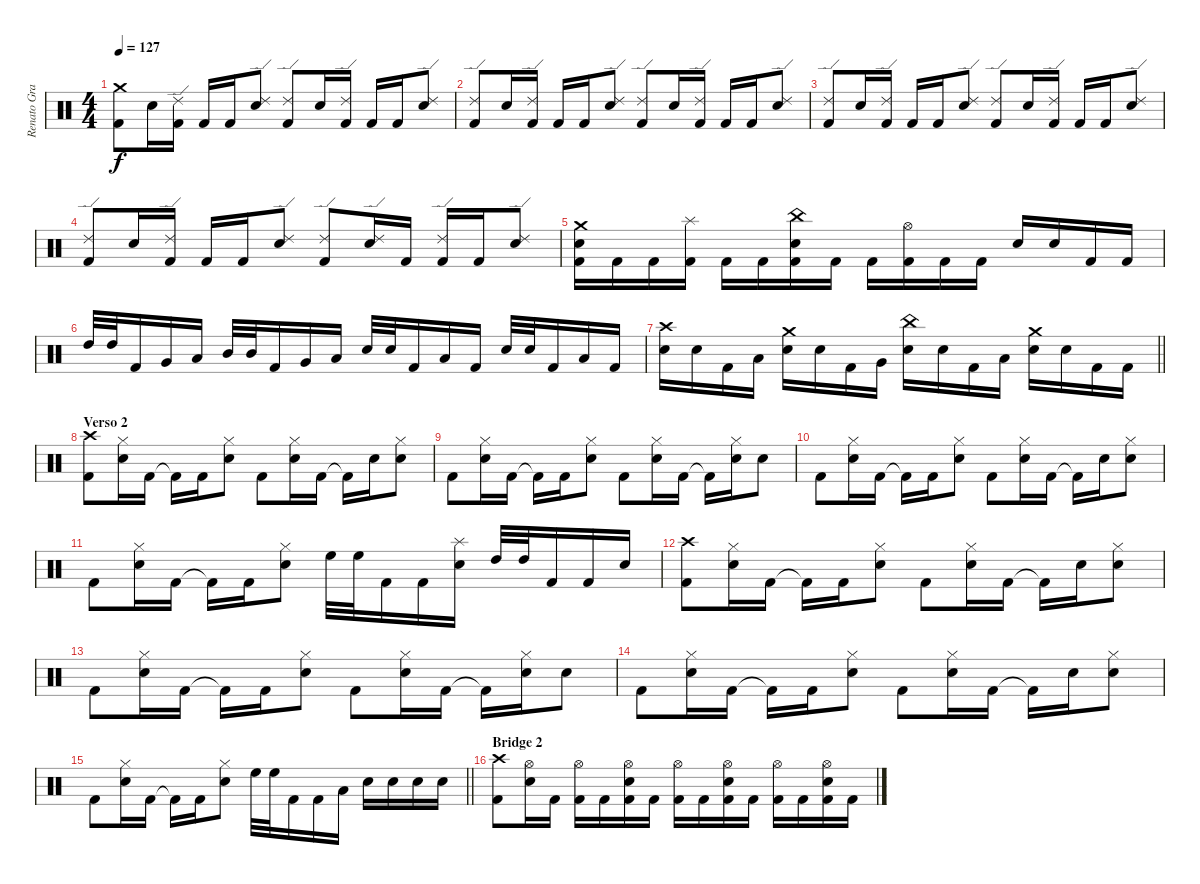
\track ("Renato Graccia (drums)" "Renato Gra") {instrument percussion}
\staff {score}
\articulation defaults
\ts (4 4)
\tempo 127
\clef neutral
\ks c
("Crash medium (hit)" "Kick (hit) 2").8{dy f} "Snare (hit) 2".16 ("Ride (edge) 2" "Kick (hit) 2").16 "Kick (hit) 2".16 "Kick (hit) 2".16 ("Ride (edge) 2" "Snare (hit) 2").8 ("Ride (edge) 2" "Kick (hit) 2").8 "Snare (hit) 2".16 ("Ride (edge) 2" "Kick (hit) 2").16 "Kick (hit) 2".16 "Kick (hit) 2".16 ("Ride (edge) 2" "Snare (hit) 2").8 |
("Ride (edge) 2" "Kick (hit) 2").8 "Snare (hit) 2".16 ("Ride (edge) 2" "Kick (hit) 2").16 "Kick (hit) 2".16 "Kick (hit) 2".16 ("Ride (edge) 2" "Snare (hit) 2").8 ("Ride (edge) 2" "Kick (hit) 2").8 "Snare (hit) 2".16 ("Ride (edge) 2" "Kick (hit) 2").16 "Kick (hit) 2".16 "Kick (hit) 2".16 ("Ride (edge) 2" "Snare (hit) 2").8 |
("Ride (edge) 2" "Kick (hit) 2").8 "Snare (hit) 2".16 ("Ride (edge) 2" "Kick (hit) 2").16 "Kick (hit) 2".16 "Kick (hit) 2".16 ("Ride (edge) 2" "Snare (hit) 2").8 ("Ride (edge) 2" "Kick (hit) 2").8 "Snare (hit) 2".16 ("Ride (edge) 2" "Kick (hit) 2").16 "Kick (hit) 2".16 "Kick (hit) 2".16 ("Ride (edge) 2" "Snare (hit) 2").8 |
("Ride (edge) 2" "Kick (hit) 2").8 "Snare (hit) 2".16 ("Ride (edge) 2" "Kick (hit) 2").16 "Kick (hit) 2".16 "Kick (hit) 2".16 ("Ride (edge) 2" "Snare (hit) 2").8 ("Ride (edge) 2" "Kick (hit) 2").8 ("Ride (edge) 2" "Snare (hit) 2").16 "Kick (hit) 2".16 ("Ride (edge) 2" "Kick (hit) 2").16 "Kick (hit) 2".16 ("Ride (edge) 2" "Snare (hit) 2").8 |
("Crash medium (hit)" "Snare (hit) 2" "Kick (hit) 2").16 "Kick (hit) 2".16 "Kick (hit) 2".16 ("Splash (hit)" "Kick (hit) 2").16 "Kick (hit) 2".16 "Kick (hit) 2".16 ("China (hit)" "Snare (hit) 2" "Kick (hit) 2").16 "Kick (hit) 2".16 "Kick (hit) 2".16 ("Hi-Hat (open)" "Kick (hit) 2").16 "Kick (hit) 2".16 "Kick (hit) 2".16 "Snare (hit) 2".16 "Snare (hit) 2".16 "Kick (hit) 2".16 "Kick (hit) 2".16 |
"High Tom (hit)".32 "High Tom (hit)".32 "Kick (hit) 2".16 "Very Low Tom (hit)".16 "Low Floor Tom (hit)".16 "Mid Tom (hit)".32 "Mid Tom (hit)".32 "Kick (hit) 2".16 "Very Low Tom (hit)".16 "Low Floor Tom (hit)".16 "Snare (hit) 2".32 "Snare (hit) 2".32 "Kick (hit) 2".16 "Low Floor Tom (hit)".16 "Kick (hit) 2".16 "Snare (hit) 2".32 "Snare (hit) 2".32 "Kick (hit) 2".16 "Low Floor Tom (hit)".16 "Kick (hit) 2".16 |
\barLineRight lightlight
("Crash high (hit)" "Snare (hit) 2").16 "Snare (hit) 2".16 "Kick (hit) 2".16 "Low Tom (hit)".16 ("Crash medium (hit)" "Snare (hit) 2").16 "Snare (hit) 2".16 "Kick (hit) 2".16 "Very Low Tom (hit)".16 ("China (hit)" "Snare (hit) 2").16 "Snare (hit) 2".16 "Kick (hit) 2".16 "Low Floor Tom (hit)".16 ("Crash medium (hit)" "Snare (hit) 2").16 "Snare (hit) 2".16 "Kick (hit) 2".16 "Kick (hit) 2".16 |
\section ("" "Verso 2")
("Crash high (hit)" "Kick (hit) 2").8 ("Hi-Hat (closed)" "Snare (hit) 2").16 "Kick (hit) 2".16 "Kick (hit) 2"{t}.16 "Kick (hit) 2".16 ("Hi-Hat (closed)" "Snare (hit) 2").8 "Kick (hit) 2".8 ("Hi-Hat (closed)" "Snare (hit) 2").16 "Kick (hit) 2".16 "Kick (hit) 2"{t}.16 "Snare (hit) 2".16 ("Hi-Hat (closed)" "Snare (hit) 2").8 |
"Kick (hit) 2".8 ("Hi-Hat (closed)" "Snare (hit) 2").16 "Kick (hit) 2".16 "Kick (hit) 2"{t}.16 "Kick (hit) 2".16 ("Hi-Hat (closed)" "Snare (hit) 2").8 "Kick (hit) 2".8 ("Hi-Hat (closed)" "Snare (hit) 2").16 "Kick (hit) 2".16 "Kick (hit) 2"{t}.16 ("Hi-Hat (closed)" "Snare (hit) 2").16 "Snare (hit) 2".8 |
"Kick (hit) 2".8 ("Hi-Hat (closed)" "Snare (hit) 2").16 "Kick (hit) 2".16 "Kick (hit) 2"{t}.16 "Kick (hit) 2".16 ("Hi-Hat (closed)" "Snare (hit) 2").8 "Kick (hit) 2".8 ("Hi-Hat (closed)" "Snare (hit) 2").16 "Kick (hit) 2".16 "Kick (hit) 2"{t}.16 "Snare (hit) 2".16 ("Hi-Hat (closed)" "Snare (hit) 2").8 |
"Kick (hit) 2".8 ("Hi-Hat (closed)" "Snare (hit) 2").16 "Kick (hit) 2".16 "Kick (hit) 2"{t}.16 "Kick (hit) 2".16 ("Hi-Hat (closed)" "Snare (hit) 2").8 "High Floor Tom (hit)".32 "High Floor Tom (hit)".32 "Kick (hit) 2".16 "Kick (hit) 2".16 ("Splash (hit)" "Snare (hit) 2").16 "High Tom (hit)".32 "High Tom (hit)".32 "Kick (hit) 2".16 "Kick (hit) 2".16 "Snare (hit) 2".16 |
("Crash high (hit)" "Kick (hit) 2").8 ("Hi-Hat (closed)" "Snare (hit) 2").16 "Kick (hit) 2".16 "Kick (hit) 2"{t}.16 "Kick (hit) 2".16 ("Hi-Hat (closed)" "Snare (hit) 2").8 "Kick (hit) 2".8 ("Hi-Hat (closed)" "Snare (hit) 2").16 "Kick (hit) 2".16 "Kick (hit) 2"{t}.16 "Snare (hit) 2".16 ("Hi-Hat (closed)" "Snare (hit) 2").8 |
"Kick (hit) 2".8 ("Hi-Hat (closed)" "Snare (hit) 2").16 "Kick (hit) 2".16 "Kick (hit) 2"{t}.16 "Kick (hit) 2".16 ("Hi-Hat (closed)" "Snare (hit) 2").8 "Kick (hit) 2".8 ("Hi-Hat (closed)" "Snare (hit) 2").16 "Kick (hit) 2".16 "Kick (hit) 2"{t}.16 ("Hi-Hat (closed)" "Snare (hit) 2").16 "Snare (hit) 2".8 |
"Kick (hit) 2".8 ("Hi-Hat (closed)" "Snare (hit) 2").16 "Kick (hit) 2".16 "Kick (hit) 2"{t}.16 "Kick (hit) 2".16 ("Hi-Hat (closed)" "Snare (hit) 2").8 "Kick (hit) 2".8 ("Hi-Hat (closed)" "Snare (hit) 2").16 "Kick (hit) 2".16 "Kick (hit) 2"{t}.16 "Snare (hit) 2".16 ("Hi-Hat (closed)" "Snare (hit) 2").8 |
\barLineRight lightlight "Kick (hit) 2".8
("Hi-Hat (closed)" "Snare (hit) 2").16 "Kick (hit) 2".16 "Kick (hit) 2"{t}.16 "Kick (hit) 2".16 ("Hi-Hat (closed)" "Snare (hit) 2").8 "High Floor Tom (hit)".32 "High Floor Tom (hit)".32 "Kick (hit) 2".16 "Kick (hit) 2".16 "Low Floor Tom (hit)".16 "Snare (hit) 2".16 "Snare (hit) 2".16 "Snare (hit) 2".16 "Snare (hit) 2".16 |
\section ("" "Bridge 2")
("Crash high (hit)" "Kick (hit) 2").8 ("Hi-Hat (open)" "Snare (hit) 2").16 "Kick (hit) 2".16 ("Hi-Hat (open)" "Kick (hit) 2").16 "Kick (hit) 2".16 ("Hi-Hat (open)" "Snare (hit) 2" "Kick (hit) 2").16 "Kick (hit) 2".16 ("Hi-Hat (open)" "Kick (hit) 2").16 "Kick (hit) 2".16 ("Hi-Hat (open)" "Snare (hit) 2" "Kick (hit) 2").16 "Kick (hit) 2".16 ("Hi-Hat (open)" "Kick (hit) 2").16 "Kick (hit) 2".16 ("Hi-Hat (open)" "Snare (hit) 2" "Kick (hit) 2").16 "Kick (hit) 2".16
